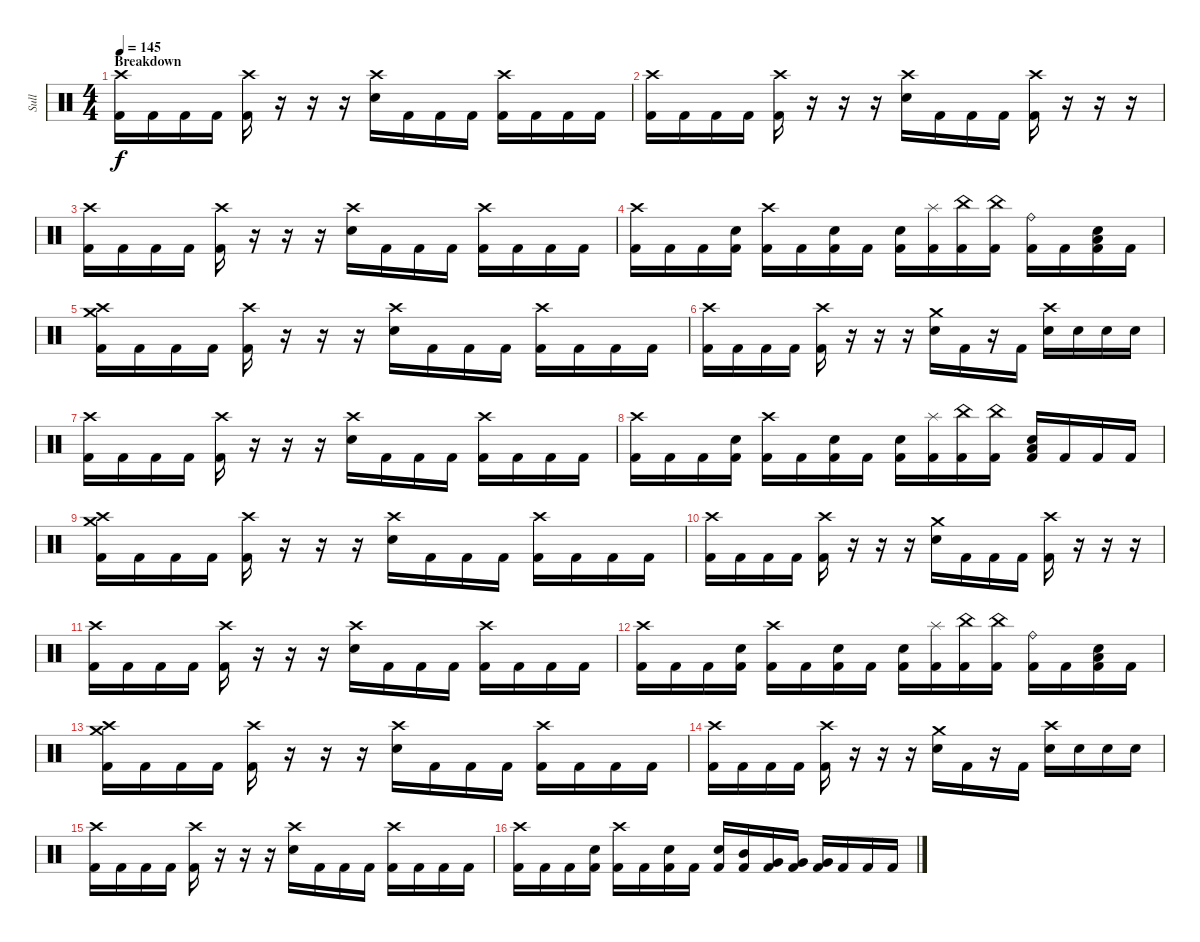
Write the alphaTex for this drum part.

\track ("Sull" "Sull") {instrument percussion}
\staff {score}
\articulation defaults
\ts (4 4)
\section ("" "Breakdown")
\tempo 145
\clef neutral
\ks c
("Crash high (hit)" "Kick (hit) 2").16{dy f} "Kick (hit) 2".16 "Kick (hit) 2".16 "Kick (hit) 2".16 ("Crash high (hit)" "Kick (hit) 2").16 r.16 r.16 r.16 ("Crash high (hit)" "Electric Snare (hit)").16 "Kick (hit) 2".16 "Kick (hit) 2".16 "Kick (hit) 2".16 ("Crash high (hit)" "Kick (hit) 2").16 "Kick (hit) 2".16 "Kick (hit) 2".16 "Kick (hit) 2".16 |
("Crash high (hit)" "Kick (hit) 2").16 "Kick (hit) 2".16 "Kick (hit) 2".16 "Kick (hit) 2".16 ("Crash high (hit)" "Kick (hit) 2").16 r.16 r.16 r.16 ("Crash high (hit)" "Electric Snare (hit)").16 "Kick (hit) 2".16 "Kick (hit) 2".16 "Kick (hit) 2".16 ("Crash high (hit)" "Kick (hit) 2").16 r.16 r.16 r.16 |
("Crash high (hit)" "Kick (hit) 2").16 "Kick (hit) 2".16 "Kick (hit) 2".16 "Kick (hit) 2".16 ("Crash high (hit)" "Kick (hit) 2").16 r.16 r.16 r.16 ("Crash high (hit)" "Electric Snare (hit)").16 "Kick (hit) 2".16 "Kick (hit) 2".16 "Kick (hit) 2".16 ("Crash high (hit)" "Kick (hit) 2").16 "Kick (hit) 2".16 "Kick (hit) 2".16 "Kick (hit) 2".16 |
("Crash high (hit)" "Kick (hit) 2").16 "Kick (hit) 2".16 "Kick (hit) 2".16 ("Electric Snare (hit)" "Kick (hit) 2").16 ("Crash high (hit)" "Kick (hit) 2").16 "Kick (hit) 2".16 ("Electric Snare (hit)" "Kick (hit) 2").16 "Kick (hit) 2".16 ("Electric Snare (hit)" "Kick (hit) 2").16 ("Splash (hit)" "Kick (hit) 2").16 ("China (hit)" "Kick (hit) 2").16 ("China (hit)" "Kick (hit) 2").16 ("Ride (bell)" "Kick (hit) 2").16 "Kick (hit) 2".16 ("Low Floor Tom (hit)" "Electric Snare (hit)" "Kick (hit) 2").16 "Kick (hit) 2".16 |
("Crash high (hit)" "Crash medium (hit)" "Kick (hit) 2").16 "Kick (hit) 2".16 "Kick (hit) 2".16 "Kick (hit) 2".16 ("Crash high (hit)" "Kick (hit) 2").16 r.16 r.16 r.16 ("Crash high (hit)" "Electric Snare (hit)").16 "Kick (hit) 2".16 "Kick (hit) 2".16 "Kick (hit) 2".16 ("Crash high (hit)" "Kick (hit) 2").16 "Kick (hit) 2".16 "Kick (hit) 2".16 "Kick (hit) 2".16 |
("Crash high (hit)" "Kick (hit) 2").16 "Kick (hit) 2".16 "Kick (hit) 2".16 "Kick (hit) 2".16 ("Crash high (hit)" "Kick (hit) 2").16 r.16 r.16 r.16 ("Crash medium (hit)" "Electric Snare (hit)").16 "Kick (hit) 2".16 r.16 "Kick (hit) 2".16 ("Crash high (hit)" "Electric Snare (hit)").16 "Electric Snare (hit)".16 "Electric Snare (hit)".16 "Electric Snare (hit)".16 |
("Crash high (hit)" "Kick (hit) 2").16 "Kick (hit) 2".16 "Kick (hit) 2".16 "Kick (hit) 2".16 ("Crash high (hit)" "Kick (hit) 2").16 r.16 r.16 r.16 ("Crash high (hit)" "Electric Snare (hit)").16 "Kick (hit) 2".16 "Kick (hit) 2".16 "Kick (hit) 2".16 ("Crash high (hit)" "Kick (hit) 2").16 "Kick (hit) 2".16 "Kick (hit) 2".16 "Kick (hit) 2".16 |
("Crash high (hit)" "Kick (hit) 2").16 "Kick (hit) 2".16 "Kick (hit) 2".16 ("Electric Snare (hit)" "Kick (hit) 2").16 ("Crash high (hit)" "Kick (hit) 2").16 "Kick (hit) 2".16 ("Electric Snare (hit)" "Kick (hit) 2").16 "Kick (hit) 2".16 ("Electric Snare (hit)" "Kick (hit) 2").16 ("Splash (hit)" "Kick (hit) 2").16 ("China (hit)" "Kick (hit) 2").16 ("China (hit)" "Kick (hit) 2").16 ("Low Floor Tom (hit)" "Electric Snare (hit)" "Kick (hit) 2").16 "Kick (hit) 2".16 "Kick (hit) 2".16 "Kick (hit) 2".16 |
("Crash high (hit)" "Crash medium (hit)" "Kick (hit) 2").16 "Kick (hit) 2".16 "Kick (hit) 2".16 "Kick (hit) 2".16 ("Crash high (hit)" "Kick (hit) 2").16 r.16 r.16 r.16 ("Crash high (hit)" "Electric Snare (hit)").16 "Kick (hit) 2".16 "Kick (hit) 2".16 "Kick (hit) 2".16 ("Crash high (hit)" "Kick (hit) 2").16 "Kick (hit) 2".16 "Kick (hit) 2".16 "Kick (hit) 2".16 |
("Crash high (hit)" "Kick (hit) 2").16 "Kick (hit) 2".16 "Kick (hit) 2".16 "Kick (hit) 2".16 ("Crash high (hit)" "Kick (hit) 2").16 r.16 r.16 r.16 ("Crash medium (hit)" "Electric Snare (hit)").16 "Kick (hit) 2".16 "Kick (hit) 2".16 "Kick (hit) 2".16 ("Crash high (hit)" "Kick (hit) 2").16 r.16 r.16 r.16 |
("Crash high (hit)" "Kick (hit) 2").16 "Kick (hit) 2".16 "Kick (hit) 2".16 "Kick (hit) 2".16 ("Crash high (hit)" "Kick (hit) 2").16 r.16 r.16 r.16 ("Crash high (hit)" "Electric Snare (hit)").16 "Kick (hit) 2".16 "Kick (hit) 2".16 "Kick (hit) 2".16 ("Crash high (hit)" "Kick (hit) 2").16 "Kick (hit) 2".16 "Kick (hit) 2".16 "Kick (hit) 2".16 |
("Crash high (hit)" "Kick (hit) 2").16 "Kick (hit) 2".16 "Kick (hit) 2".16 ("Electric Snare (hit)" "Kick (hit) 2").16 ("Crash high (hit)" "Kick (hit) 2").16 "Kick (hit) 2".16 ("Electric Snare (hit)" "Kick (hit) 2").16 "Kick (hit) 2".16 ("Electric Snare (hit)" "Kick (hit) 2").16 ("Splash (hit)" "Kick (hit) 2").16 ("China (hit)" "Kick (hit) 2").16 ("China (hit)" "Kick (hit) 2").16 ("Ride (bell)" "Kick (hit) 2").16 "Kick (hit) 2".16 ("Low Floor Tom (hit)" "Electric Snare (hit)" "Kick (hit) 2").16 "Kick (hit) 2".16 |
("Crash high (hit)" "Crash medium (hit)" "Kick (hit) 2").16 "Kick (hit) 2".16 "Kick (hit) 2".16 "Kick (hit) 2".16 ("Crash high (hit)" "Kick (hit) 2").16 r.16 r.16 r.16 ("Crash high (hit)" "Electric Snare (hit)").16 "Kick (hit) 2".16 "Kick (hit) 2".16 "Kick (hit) 2".16 ("Crash high (hit)" "Kick (hit) 2").16 "Kick (hit) 2".16 "Kick (hit) 2".16 "Kick (hit) 2".16 |
("Crash high (hit)" "Kick (hit) 2").16 "Kick (hit) 2".16 "Kick (hit) 2".16 "Kick (hit) 2".16 ("Crash high (hit)" "Kick (hit) 2").16 r.16 r.16 r.16 ("Crash medium (hit)" "Electric Snare (hit)").16 "Kick (hit) 2".16 r.16 "Kick (hit) 2".16 ("Crash high (hit)" "Electric Snare (hit)").16 "Electric Snare (hit)".16 "Electric Snare (hit)".16 "Electric Snare (hit)".16 |
("Crash high (hit)" "Kick (hit) 2").16 "Kick (hit) 2".16 "Kick (hit) 2".16 "Kick (hit) 2".16 ("Crash high (hit)" "Kick (hit) 2").16 r.16 r.16 r.16 ("Crash high (hit)" "Electric Snare (hit)").16 "Kick (hit) 2".16 "Kick (hit) 2".16 "Kick (hit) 2".16 ("Crash high (hit)" "Kick (hit) 2").16 "Kick (hit) 2".16 "Kick (hit) 2".16 "Kick (hit) 2".16 |
("Crash high (hit)" "Kick (hit) 2").16 "Kick (hit) 2".16 "Kick (hit) 2".16 ("Electric Snare (hit)" "Kick (hit) 2").16 ("Crash high (hit)" "Kick (hit) 2").16 "Kick (hit) 2".16 ("Electric Snare (hit)" "Kick (hit) 2").16 "Kick (hit) 2".16 ("Electric Snare (hit)" "Kick (hit) 2").16 ("Mid Tom (hit)" "Kick (hit) 2").16 ("Very Low Tom (hit)" "Kick (hit) 2").16 ("Very Low Tom (hit)" "Kick (hit) 2").16 ("Very Low Tom (hit)" "Kick (hit) 2").16 "Kick (hit) 2".16 "Kick (hit) 2".16 "Kick (hit) 2".16
